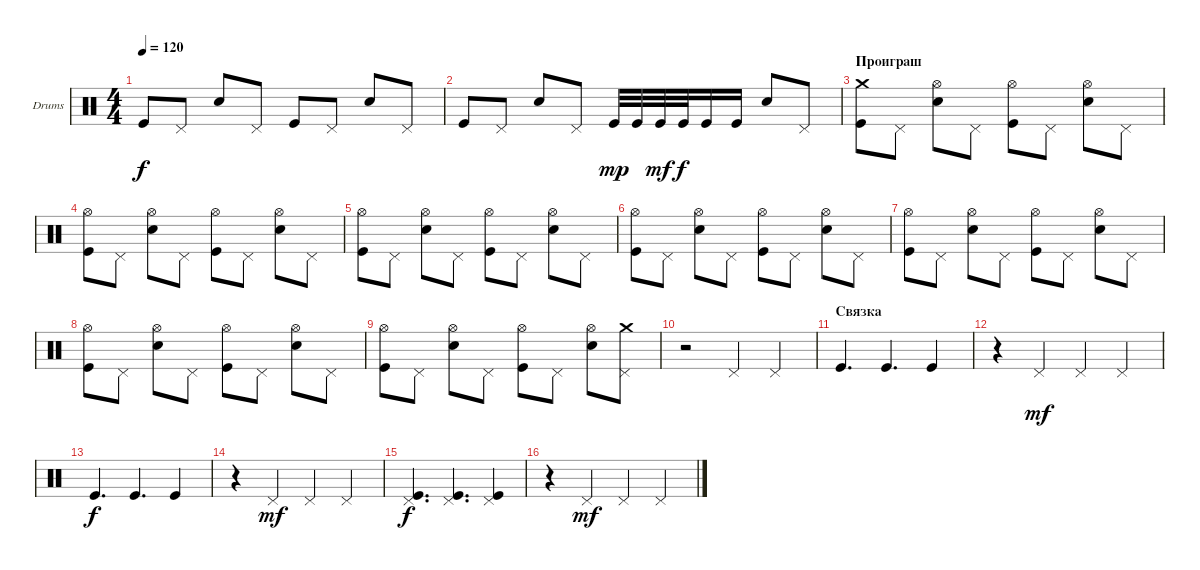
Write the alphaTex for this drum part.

\defaultSystemsLayout 4
\bracketExtendMode groupsimilarinstruments
\firstSystemTrackNameOrientation horizontal
\otherSystemsTrackNameOrientation horizontal
\track ("Е. Кулаков" "Drums") {instrument percussion}
\staff {score}
\articulation defaults
\ts (4 4)
\tempo 120
\clef neutral
\ks c "Kick (hit)".8{dy f} "Pedal Hi-Hat (hit)".8 "Snare (hit) 2".8 "Pedal Hi-Hat (hit)".8 "Kick (hit)".8 "Pedal Hi-Hat (hit)".8 "Snare (hit) 2".8 "Pedal Hi-Hat (hit)".8
|
"Kick (hit)".8 "Pedal Hi-Hat (hit)".8 "Snare (hit) 2".8 "Pedal Hi-Hat (hit)".8 "Kick (hit)".32{dy mp} "Kick (hit)".32 "Kick (hit)".32{dy mf} "Kick (hit)".32{dy f} "Kick (hit)".16 "Kick (hit)".16 "Snare (hit) 2".8 "Pedal Hi-Hat (hit)".8 |
\section ("" "Проиграш")
("Kick (hit)" "Crash medium (hit)").8 "Pedal Hi-Hat (hit)".8 ("Snare (hit) 2" "Hi-Hat (open)").8 "Pedal Hi-Hat (hit)".8 ("Kick (hit)" "Hi-Hat (open)").8 "Pedal Hi-Hat (hit)".8 ("Snare (hit) 2" "Hi-Hat (open)").8 "Pedal Hi-Hat (hit)".8 |
("Kick (hit)" "Hi-Hat (open)").8 "Pedal Hi-Hat (hit)".8 ("Snare (hit) 2" "Hi-Hat (open)").8 "Pedal Hi-Hat (hit)".8 ("Kick (hit)" "Hi-Hat (open)").8 "Pedal Hi-Hat (hit)".8 ("Snare (hit) 2" "Hi-Hat (open)").8 "Pedal Hi-Hat (hit)".8 |
("Kick (hit)" "Hi-Hat (open)").8 "Pedal Hi-Hat (hit)".8 ("Snare (hit) 2" "Hi-Hat (open)").8 "Pedal Hi-Hat (hit)".8 ("Kick (hit)" "Hi-Hat (open)").8 "Pedal Hi-Hat (hit)".8 ("Snare (hit) 2" "Hi-Hat (open)").8 "Pedal Hi-Hat (hit)".8 |
("Kick (hit)" "Hi-Hat (open)").8 "Pedal Hi-Hat (hit)".8 ("Snare (hit) 2" "Hi-Hat (open)").8 "Pedal Hi-Hat (hit)".8 ("Kick (hit)" "Hi-Hat (open)").8 "Pedal Hi-Hat (hit)".8 ("Snare (hit) 2" "Hi-Hat (open)").8 "Pedal Hi-Hat (hit)".8 |
("Kick (hit)" "Hi-Hat (open)").8 "Pedal Hi-Hat (hit)".8 ("Snare (hit) 2" "Hi-Hat (open)").8 "Pedal Hi-Hat (hit)".8 ("Kick (hit)" "Hi-Hat (open)").8 "Pedal Hi-Hat (hit)".8 ("Snare (hit) 2" "Hi-Hat (open)").8 "Pedal Hi-Hat (hit)".8 |
("Kick (hit)" "Hi-Hat (open)").8 "Pedal Hi-Hat (hit)".8 ("Snare (hit) 2" "Hi-Hat (open)").8 "Pedal Hi-Hat (hit)".8 ("Kick (hit)" "Hi-Hat (open)").8 "Pedal Hi-Hat (hit)".8 ("Snare (hit) 2" "Hi-Hat (open)").8 "Pedal Hi-Hat (hit)".8 |
("Kick (hit)" "Hi-Hat (open)").8 "Pedal Hi-Hat (hit)".8 ("Snare (hit) 2" "Hi-Hat (open)").8 "Pedal Hi-Hat (hit)".8 ("Kick (hit)" "Hi-Hat (open)").8 "Pedal Hi-Hat (hit)".8 ("Snare (hit) 2" "Hi-Hat (open)").8 ("Pedal Hi-Hat (hit)" "Crash medium (hit)").8 |
r.2 "Pedal Hi-Hat (hit)".4 "Pedal Hi-Hat (hit)".4 |
\section ("" "Связка")
"Kick (hit)".4{d} "Kick (hit)".4{d} "Kick (hit)".4 |
r.4 "Pedal Hi-Hat (hit)".4{dy mf} "Pedal Hi-Hat (hit)".4 "Pedal Hi-Hat (hit)".4 |
"Kick (hit)".4{d dy f} "Kick (hit)".4{d} "Kick (hit)".4 |
r.4 "Pedal Hi-Hat (hit)".4{dy mf} "Pedal Hi-Hat (hit)".4 "Pedal Hi-Hat (hit)".4 |
("Kick (hit)" "Pedal Hi-Hat (hit)").4{d dy f} ("Kick (hit)" "Pedal Hi-Hat (hit)").4{d} ("Kick (hit)" "Pedal Hi-Hat (hit)").4 |
r.4 "Pedal Hi-Hat (hit)".4{dy mf} "Pedal Hi-Hat (hit)".4 "Pedal Hi-Hat (hit)".4
